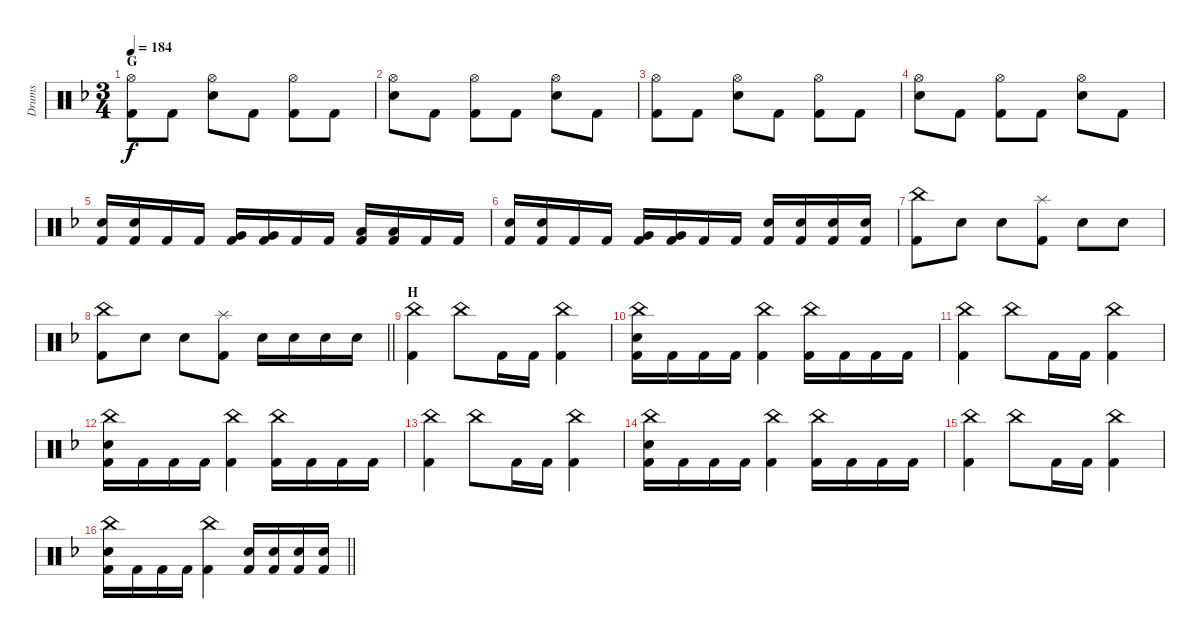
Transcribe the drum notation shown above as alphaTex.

\track ("Drums" "Drums") {instrument percussion}
\staff {score}
\articulation defaults
\ts (3 4)
\section ("" "G")
\tempo 184
\clef neutral
\ks f
("Hi-Hat (open)" "Kick (hit) 2").8{dy f} "Kick (hit) 2".8 ("Hi-Hat (open)" "Electric Snare (hit)").8 "Kick (hit) 2".8 ("Hi-Hat (open)" "Kick (hit) 2").8 "Kick (hit) 2".8 |
("Hi-Hat (open)" "Electric Snare (hit)").8 "Kick (hit) 2".8 ("Hi-Hat (open)" "Kick (hit) 2").8 "Kick (hit) 2".8 ("Hi-Hat (open)" "Electric Snare (hit)").8 "Kick (hit) 2".8 |
("Hi-Hat (open)" "Kick (hit) 2").8 "Kick (hit) 2".8 ("Hi-Hat (open)" "Electric Snare (hit)").8 "Kick (hit) 2".8 ("Hi-Hat (open)" "Kick (hit) 2").8 "Kick (hit) 2".8 |
("Hi-Hat (open)" "Electric Snare (hit)").8 "Kick (hit) 2".8 ("Hi-Hat (open)" "Kick (hit) 2").8 "Kick (hit) 2".8 ("Hi-Hat (open)" "Electric Snare (hit)").8 "Kick (hit) 2".8 |
("Electric Snare (hit)" "Kick (hit) 2").16 ("Electric Snare (hit)" "Kick (hit) 2").16 "Kick (hit) 2".16 "Kick (hit) 2".16 ("Very Low Tom (hit)" "Kick (hit) 2").16 ("Very Low Tom (hit)" "Kick (hit) 2").16 "Kick (hit) 2".16 "Kick (hit) 2".16 ("Low Floor Tom (hit)" "Kick (hit) 2").16 ("Low Floor Tom (hit)" "Kick (hit) 2").16 "Kick (hit) 2".16 "Kick (hit) 2".16 |
("Electric Snare (hit)" "Kick (hit) 2").16 ("Electric Snare (hit)" "Kick (hit) 2").16 "Kick (hit) 2".16 "Kick (hit) 2".16 ("Very Low Tom (hit)" "Kick (hit) 2").16 ("Very Low Tom (hit)" "Kick (hit) 2").16 "Kick (hit) 2".16 "Kick (hit) 2".16 ("Electric Snare (hit)" "Kick (hit) 2").16 ("Electric Snare (hit)" "Kick (hit) 2").16 ("Electric Snare (hit)" "Kick (hit) 2").16 ("Electric Snare (hit)" "Kick (hit) 2").16 |
("China (hit)" "Kick (hit) 2").8 "Electric Snare (hit)".8 "Electric Snare (hit)".8 ("Splash (hit)" "Kick (hit) 2").8 "Electric Snare (hit)".8 "Electric Snare (hit)".8 |
\barLineRight lightlight
("China (hit)" "Kick (hit) 2").8 "Electric Snare (hit)".8 "Electric Snare (hit)".8 ("Splash (hit)" "Kick (hit) 2").8 "Electric Snare (hit)".16 "Electric Snare (hit)".16 "Electric Snare (hit)".16 "Electric Snare (hit)".16 |
\section ("" "H")
("China (hit)" "Kick (hit) 2").4 "China (hit)".8 "Kick (hit) 2".16 "Kick (hit) 2".16 ("China (hit)" "Kick (hit) 2").4 |
("China (hit)" "Electric Snare (hit)" "Kick (hit) 2").16 "Kick (hit) 2".16 "Kick (hit) 2".16 "Kick (hit) 2".16 ("China (hit)" "Kick (hit) 2").4 ("China (hit)" "Kick (hit) 2").16 "Kick (hit) 2".16 "Kick (hit) 2".16 "Kick (hit) 2".16 |
("China (hit)" "Kick (hit) 2").4 "China (hit)".8 "Kick (hit) 2".16 "Kick (hit) 2".16 ("China (hit)" "Kick (hit) 2").4 |
("China (hit)" "Electric Snare (hit)" "Kick (hit) 2").16 "Kick (hit) 2".16 "Kick (hit) 2".16 "Kick (hit) 2".16 ("China (hit)" "Kick (hit) 2").4 ("China (hit)" "Kick (hit) 2").16 "Kick (hit) 2".16 "Kick (hit) 2".16 "Kick (hit) 2".16 |
("China (hit)" "Kick (hit) 2").4 "China (hit)".8 "Kick (hit) 2".16 "Kick (hit) 2".16 ("China (hit)" "Kick (hit) 2").4 |
("China (hit)" "Electric Snare (hit)" "Kick (hit) 2").16 "Kick (hit) 2".16 "Kick (hit) 2".16 "Kick (hit) 2".16 ("China (hit)" "Kick (hit) 2").4 ("China (hit)" "Kick (hit) 2").16 "Kick (hit) 2".16 "Kick (hit) 2".16 "Kick (hit) 2".16 |
("China (hit)" "Kick (hit) 2").4 "China (hit)".8 "Kick (hit) 2".16 "Kick (hit) 2".16 ("China (hit)" "Kick (hit) 2").4 |
\barLineRight lightlight
("China (hit)" "Electric Snare (hit)" "Kick (hit) 2").16 "Kick (hit) 2".16 "Kick (hit) 2".16 "Kick (hit) 2".16 ("China (hit)" "Kick (hit) 2").4 ("Electric Snare (hit)" "Kick (hit) 2").16 ("Electric Snare (hit)" "Kick (hit) 2").16 ("Electric Snare (hit)" "Kick (hit) 2").16 ("Electric Snare (hit)" "Kick (hit) 2").16
